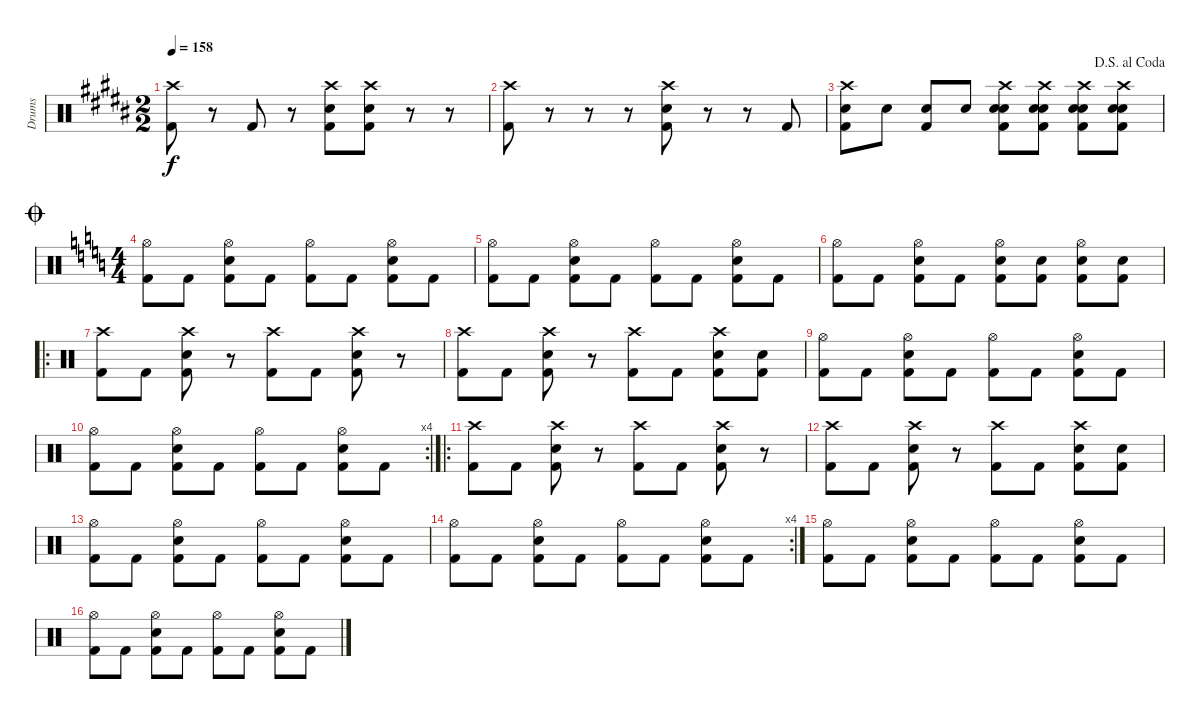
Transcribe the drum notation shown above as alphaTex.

\track ("Drums" "Drums") {instrument percussion}
\staff {score}
\articulation defaults
\ts (2 2)
\tempo 158
\clef neutral
\ks g#minor
("Crash high (hit)" "Kick (hit) 2").8{dy f} r.8 "Kick (hit) 2".8 r.8 ("Crash high (hit)" "Electric Snare (hit)" "Kick (hit) 2").8 ("Crash high (hit)" "Electric Snare (hit)" "Kick (hit) 2").8 r.8 r.8 |
\ks b
("Crash high (hit)" "Kick (hit) 2").8 r.8 r.8 r.8 ("Crash high (hit)" "Electric Snare (hit)" "Kick (hit) 2").8 r.8 r.8 "Kick (hit) 2".8 |
\jump dalsegnoalcoda
\ks g#minor
("Crash high (hit)" "Electric Snare (hit)" "Kick (hit) 2").8 "Electric Snare (hit)".8 ("Electric Snare (hit)" "Kick (hit) 2").8 "Electric Snare (hit)".8 ("Crash high (hit)" "Electric Snare (hit)" "Electric Snare (hit)" "Kick (hit) 2").8 ("Crash high (hit)" "Electric Snare (hit)" "Electric Snare (hit)" "Kick (hit) 2").8 ("Crash high (hit)" "Electric Snare (hit)" "Kick (hit) 2" "Electric Snare (hit)").8 ("Crash high (hit)" "Electric Snare (hit)" "Kick (hit) 2" "Electric Snare (hit)").8 |
\ts (4 4)
\jump coda
\ks c
("Hi-Hat (open)" "Kick (hit) 2").8 "Kick (hit) 2".8 ("Hi-Hat (open)" "Electric Snare (hit)" "Kick (hit) 2").8 "Kick (hit) 2".8 ("Hi-Hat (open)" "Kick (hit) 2").8 "Kick (hit) 2".8 ("Hi-Hat (open)" "Kick (hit) 2" "Electric Snare (hit)").8 "Kick (hit) 2".8 |
("Hi-Hat (open)" "Kick (hit) 2").8 "Kick (hit) 2".8 ("Hi-Hat (open)" "Electric Snare (hit)" "Kick (hit) 2").8 "Kick (hit) 2".8 ("Hi-Hat (open)" "Kick (hit) 2").8 "Kick (hit) 2".8 ("Hi-Hat (open)" "Kick (hit) 2" "Electric Snare (hit)").8 "Kick (hit) 2".8 |
("Hi-Hat (open)" "Kick (hit) 2").8 "Kick (hit) 2".8 ("Hi-Hat (open)" "Electric Snare (hit)" "Kick (hit) 2").8 "Kick (hit) 2".8 ("Hi-Hat (open)" "Electric Snare (hit)" "Kick (hit) 2").8 ("Electric Snare (hit)" "Kick (hit) 2").8 ("Hi-Hat (open)" "Kick (hit) 2" "Electric Snare (hit)").8 ("Electric Snare (hit)" "Kick (hit) 2").8 |
\ro
("Crash high (hit)" "Kick (hit) 2").8 "Kick (hit) 2".8 ("Crash high (hit)" "Electric Snare (hit)" "Kick (hit) 2").8 r.8 ("Crash high (hit)" "Kick (hit) 2").8 "Kick (hit) 2".8 ("Crash high (hit)" "Electric Snare (hit)" "Kick (hit) 2").8 r.8 |
("Crash high (hit)" "Kick (hit) 2").8 "Kick (hit) 2".8 ("Crash high (hit)" "Electric Snare (hit)" "Kick (hit) 2").8 r.8 ("Crash high (hit)" "Kick (hit) 2").8 "Kick (hit) 2".8 ("Crash high (hit)" "Electric Snare (hit)" "Kick (hit) 2").8 ("Electric Snare (hit)" "Kick (hit) 2").8 |
("Hi-Hat (open)" "Kick (hit) 2").8 "Kick (hit) 2".8 ("Hi-Hat (open)" "Electric Snare (hit)" "Kick (hit) 2").8 "Kick (hit) 2".8 ("Hi-Hat (open)" "Kick (hit) 2").8 "Kick (hit) 2".8 ("Hi-Hat (open)" "Kick (hit) 2" "Electric Snare (hit)").8 "Kick (hit) 2".8 |
\rc 4
("Hi-Hat (open)" "Kick (hit) 2").8 "Kick (hit) 2".8 ("Hi-Hat (open)" "Electric Snare (hit)" "Kick (hit) 2").8 "Kick (hit) 2".8 ("Hi-Hat (open)" "Kick (hit) 2").8 "Kick (hit) 2".8 ("Hi-Hat (open)" "Kick (hit) 2" "Electric Snare (hit)").8 "Kick (hit) 2".8 |
\ro
("Crash high (hit)" "Kick (hit) 2").8 "Kick (hit) 2".8 ("Crash high (hit)" "Electric Snare (hit)" "Kick (hit) 2").8 r.8 ("Crash high (hit)" "Kick (hit) 2").8 "Kick (hit) 2".8 ("Crash high (hit)" "Electric Snare (hit)" "Kick (hit) 2").8 r.8 |
("Crash high (hit)" "Kick (hit) 2").8 "Kick (hit) 2".8 ("Crash high (hit)" "Electric Snare (hit)" "Kick (hit) 2").8 r.8 ("Crash high (hit)" "Kick (hit) 2").8 "Kick (hit) 2".8 ("Crash high (hit)" "Electric Snare (hit)" "Kick (hit) 2").8 ("Electric Snare (hit)" "Kick (hit) 2").8 |
("Hi-Hat (open)" "Kick (hit) 2").8 "Kick (hit) 2".8 ("Hi-Hat (open)" "Electric Snare (hit)" "Kick (hit) 2").8 "Kick (hit) 2".8 ("Hi-Hat (open)" "Kick (hit) 2").8 "Kick (hit) 2".8 ("Hi-Hat (open)" "Kick (hit) 2" "Electric Snare (hit)").8 "Kick (hit) 2".8 |
\rc 4
("Hi-Hat (open)" "Kick (hit) 2").8 "Kick (hit) 2".8 ("Hi-Hat (open)" "Electric Snare (hit)" "Kick (hit) 2").8 "Kick (hit) 2".8 ("Hi-Hat (open)" "Kick (hit) 2").8 "Kick (hit) 2".8 ("Hi-Hat (open)" "Kick (hit) 2" "Electric Snare (hit)").8 "Kick (hit) 2".8 |
("Hi-Hat (open)" "Kick (hit) 2").8 "Kick (hit) 2".8 ("Hi-Hat (open)" "Electric Snare (hit)" "Kick (hit) 2").8 "Kick (hit) 2".8 ("Hi-Hat (open)" "Kick (hit) 2").8 "Kick (hit) 2".8 ("Hi-Hat (open)" "Kick (hit) 2" "Electric Snare (hit)").8 "Kick (hit) 2".8 |
("Hi-Hat (open)" "Kick (hit) 2").8 "Kick (hit) 2".8 ("Hi-Hat (open)" "Electric Snare (hit)" "Kick (hit) 2").8 "Kick (hit) 2".8 ("Hi-Hat (open)" "Kick (hit) 2").8 "Kick (hit) 2".8 ("Hi-Hat (open)" "Kick (hit) 2" "Electric Snare (hit)").8 "Kick (hit) 2".8
